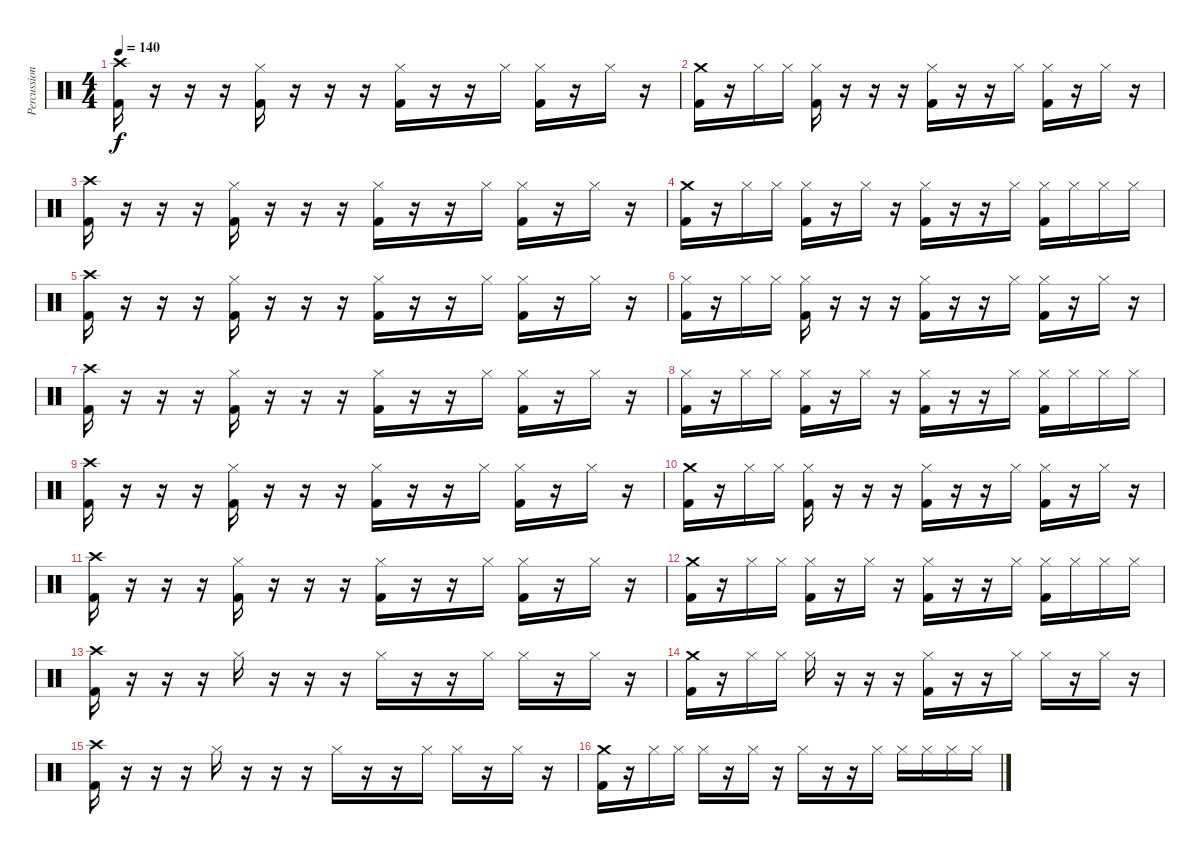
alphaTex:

\track ("Percussion" "Percussion") {instrument percussion}
\staff {score}
\articulation defaults
\ts (4 4)
\tempo 140
\clef neutral
\ks c
("Crash high (hit)" "Kick (hit) 2").16{dy f} r.16 r.16 r.16 ("Hi-Hat (closed)" "Kick (hit) 2").16 r.16 r.16 r.16 ("Hi-Hat (closed)" "Kick (hit) 2").16 r.16 r.16 "Hi-Hat (closed)".16 ("Hi-Hat (closed)" "Kick (hit) 2").16 r.16 "Hi-Hat (closed)".16 r.16 |
("Crash medium (hit)" "Kick (hit) 2").16 r.16 "Hi-Hat (closed)".16 "Hi-Hat (closed)".16 ("Hi-Hat (closed)" "Kick (hit) 2").16 r.16 r.16 r.16 ("Hi-Hat (closed)" "Kick (hit) 2").16 r.16 r.16 "Hi-Hat (closed)".16 ("Hi-Hat (closed)" "Kick (hit) 2").16 r.16 "Hi-Hat (closed)".16 r.16 |
("Crash high (hit)" "Kick (hit) 2").16 r.16 r.16 r.16 ("Hi-Hat (closed)" "Kick (hit) 2").16 r.16 r.16 r.16 ("Hi-Hat (closed)" "Kick (hit) 2").16 r.16 r.16 "Hi-Hat (closed)".16 ("Hi-Hat (closed)" "Kick (hit) 2").16 r.16 "Hi-Hat (closed)".16 r.16 |
("Crash medium (hit)" "Kick (hit) 2").16 r.16 "Hi-Hat (closed)".16 "Hi-Hat (closed)".16 ("Hi-Hat (closed)" "Kick (hit) 2").16 r.16 "Hi-Hat (closed)".16 r.16 ("Hi-Hat (closed)" "Kick (hit) 2").16 r.16 r.16 "Hi-Hat (closed)".16 ("Hi-Hat (closed)" "Kick (hit) 2").16 "Hi-Hat (closed)".16 "Hi-Hat (closed)".16 "Hi-Hat (closed)".16 |
("Crash high (hit)" "Kick (hit) 2").16 r.16 r.16 r.16 ("Hi-Hat (closed)" "Kick (hit) 2").16 r.16 r.16 r.16 ("Hi-Hat (closed)" "Kick (hit) 2").16 r.16 r.16 "Hi-Hat (closed)".16 ("Hi-Hat (closed)" "Kick (hit) 2").16 r.16 "Hi-Hat (closed)".16 r.16 |
("Hi-Hat (closed)" "Kick (hit) 2").16 r.16 "Hi-Hat (closed)".16 "Hi-Hat (closed)".16 ("Hi-Hat (closed)" "Kick (hit) 2").16 r.16 r.16 r.16 ("Hi-Hat (closed)" "Kick (hit) 2").16 r.16 r.16 "Hi-Hat (closed)".16 ("Hi-Hat (closed)" "Kick (hit) 2").16 r.16 "Hi-Hat (closed)".16 r.16 |
("Crash high (hit)" "Kick (hit) 2").16 r.16 r.16 r.16 ("Hi-Hat (closed)" "Kick (hit) 2").16 r.16 r.16 r.16 ("Hi-Hat (closed)" "Kick (hit) 2").16 r.16 r.16 "Hi-Hat (closed)".16 ("Hi-Hat (closed)" "Kick (hit) 2").16 r.16 "Hi-Hat (closed)".16 r.16 |
("Hi-Hat (closed)" "Kick (hit) 2").16 r.16 "Hi-Hat (closed)".16 "Hi-Hat (closed)".16 ("Hi-Hat (closed)" "Kick (hit) 2").16 r.16 "Hi-Hat (closed)".16 r.16 ("Hi-Hat (closed)" "Kick (hit) 2").16 r.16 r.16 "Hi-Hat (closed)".16 ("Hi-Hat (closed)" "Kick (hit) 2").16 "Hi-Hat (closed)".16 "Hi-Hat (closed)".16 "Hi-Hat (closed)".16 |
("Crash high (hit)" "Kick (hit) 2").16 r.16 r.16 r.16 ("Hi-Hat (closed)" "Kick (hit) 2").16 r.16 r.16 r.16 ("Hi-Hat (closed)" "Kick (hit) 2").16 r.16 r.16 "Hi-Hat (closed)".16 ("Hi-Hat (closed)" "Kick (hit) 2").16 r.16 "Hi-Hat (closed)".16 r.16 |
("Crash medium (hit)" "Kick (hit) 2").16 r.16 "Hi-Hat (closed)".16 "Hi-Hat (closed)".16 ("Hi-Hat (closed)" "Kick (hit) 2").16 r.16 r.16 r.16 ("Hi-Hat (closed)" "Kick (hit) 2").16 r.16 r.16 "Hi-Hat (closed)".16 ("Hi-Hat (closed)" "Kick (hit) 2").16 r.16 "Hi-Hat (closed)".16 r.16 |
("Crash high (hit)" "Kick (hit) 2").16 r.16 r.16 r.16 ("Hi-Hat (closed)" "Kick (hit) 2").16 r.16 r.16 r.16 ("Hi-Hat (closed)" "Kick (hit) 2").16 r.16 r.16 "Hi-Hat (closed)".16 ("Hi-Hat (closed)" "Kick (hit) 2").16 r.16 "Hi-Hat (closed)".16 r.16 |
("Crash medium (hit)" "Kick (hit) 2").16 r.16 "Hi-Hat (closed)".16 "Hi-Hat (closed)".16 ("Hi-Hat (closed)" "Kick (hit) 2").16 r.16 "Hi-Hat (closed)".16 r.16 ("Hi-Hat (closed)" "Kick (hit) 2").16 r.16 r.16 "Hi-Hat (closed)".16 ("Hi-Hat (closed)" "Kick (hit) 2").16 "Hi-Hat (closed)".16 "Hi-Hat (closed)".16 "Hi-Hat (closed)".16 |
("Crash high (hit)" "Kick (hit) 2").16 r.16 r.16 r.16 "Hi-Hat (closed)".16 r.16 r.16 r.16 "Hi-Hat (closed)".16 r.16 r.16 "Hi-Hat (closed)".16 "Hi-Hat (closed)".16 r.16 "Hi-Hat (closed)".16 r.16 |
("Crash medium (hit)" "Kick (hit) 2").16 r.16 "Hi-Hat (closed)".16 "Hi-Hat (closed)".16 "Hi-Hat (closed)".16 r.16 r.16 r.16 ("Hi-Hat (closed)" "Kick (hit) 2").16 r.16 r.16 "Hi-Hat (closed)".16 "Hi-Hat (closed)".16 r.16 "Hi-Hat (closed)".16 r.16 |
("Crash high (hit)" "Kick (hit) 2").16 r.16 r.16 r.16 "Hi-Hat (closed)".16 r.16 r.16 r.16 "Hi-Hat (closed)".16 r.16 r.16 "Hi-Hat (closed)".16 "Hi-Hat (closed)".16 r.16 "Hi-Hat (closed)".16 r.16 |
("Crash medium (hit)" "Kick (hit) 2").16 r.16 "Hi-Hat (closed)".16 "Hi-Hat (closed)".16 "Hi-Hat (closed)".16 r.16 "Hi-Hat (closed)".16 r.16 "Hi-Hat (closed)".16 r.16 r.16 "Hi-Hat (closed)".16 "Hi-Hat (closed)".16 "Hi-Hat (closed)".16 "Hi-Hat (closed)".16 "Hi-Hat (closed)".16
